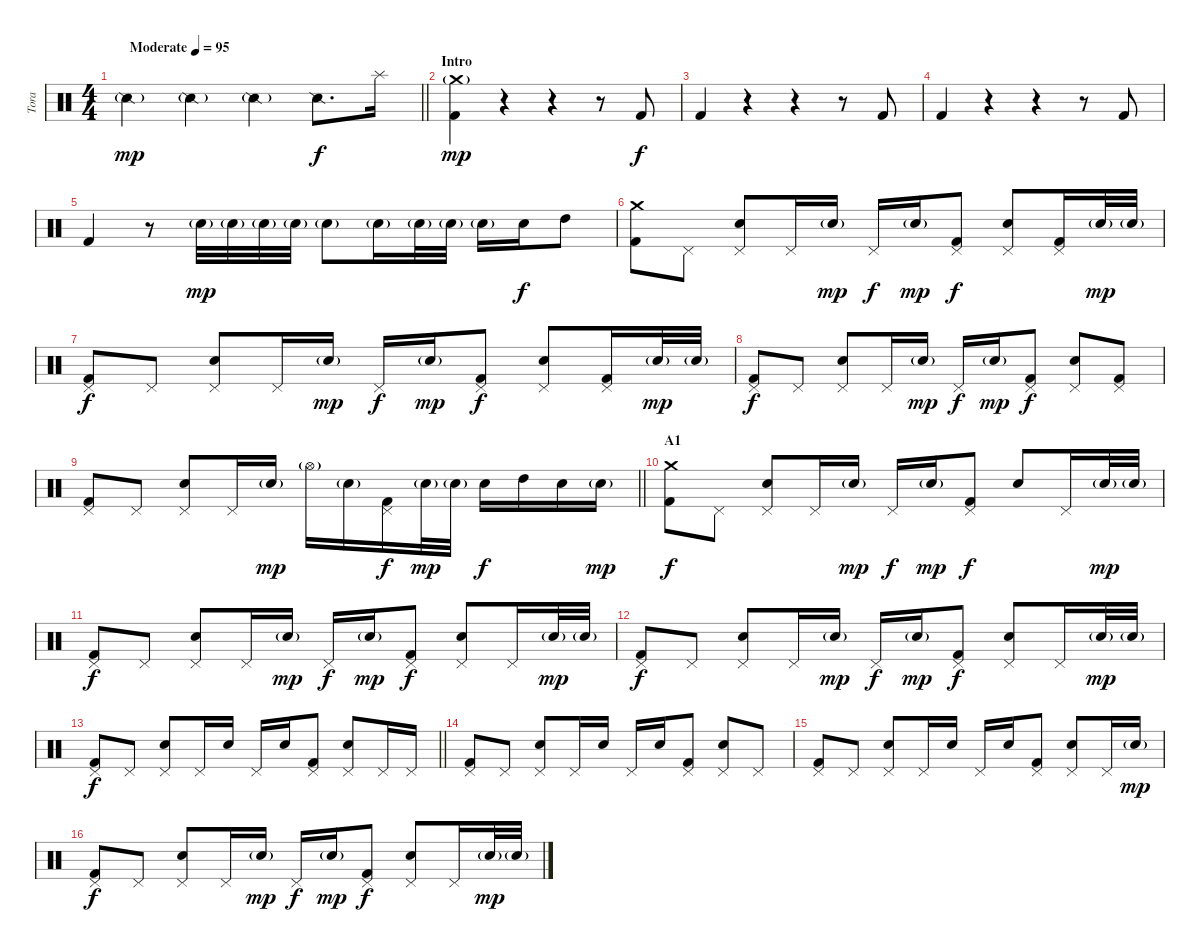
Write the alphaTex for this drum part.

\track ("Tora" "Tora") {instrument percussion}
\staff {score}
\articulation defaults
\ts (4 4)
\tempo (95 "Moderate")
\clef neutral
\barLineRight lightlight
\ks c "Snare (side stick) 2"{g}.4{dy mp} "Snare (side stick) 2"{g}.4 "Snare (side stick) 2"{g}.4 "Snare (side stick) 2".8{d dy f} "Splash (hit)".16
|
\section ("" "Intro")
("Crash medium (hit)"{g} "Kick (hit) 2").4{dy mp} r.4 r.4 r.8 "Kick (hit) 2".8{dy f} |
"Kick (hit) 2".4 r.4 r.4 r.8 "Kick (hit) 2".8 |
"Kick (hit) 2".4 r.4 r.4 r.8 "Kick (hit) 2".8 |
"Kick (hit) 2".4 r.8 "Electric Snare (hit)"{g}.32{dy mp} "Electric Snare (hit)"{g}.32 "Electric Snare (hit)"{g}.32 "Electric Snare (hit)"{g}.32 "Electric Snare (hit)"{g}.8 "Electric Snare (hit)"{g}.16 "Electric Snare (hit)"{g}.32 "Electric Snare (hit)"{g}.32 "Electric Snare (hit)"{g}.16 "Electric Snare (hit)".16{dy f} "High Tom (hit)".8 |
("Crash medium (hit)" "Kick (hit) 2").8 "Pedal Hi-Hat (hit)".8 ("Pedal Hi-Hat (hit)" "Electric Snare (hit)").8 "Pedal Hi-Hat (hit)".16 "Electric Snare (hit)"{g}.16{dy mp} "Pedal Hi-Hat (hit)".16{dy f} "Electric Snare (hit)"{g}.16{dy mp} ("Pedal Hi-Hat (hit)" "Kick (hit) 2").8{dy f} ("Pedal Hi-Hat (hit)" "Electric Snare (hit)").8 ("Pedal Hi-Hat (hit)" "Kick (hit) 2").16 "Electric Snare (hit)"{g}.32{dy mp} "Electric Snare (hit)"{g}.32 |
("Pedal Hi-Hat (hit)" "Kick (hit) 2").8{dy f} "Pedal Hi-Hat (hit)".8 ("Pedal Hi-Hat (hit)" "Electric Snare (hit)").8 "Pedal Hi-Hat (hit)".16 "Electric Snare (hit)"{g}.16{dy mp} "Pedal Hi-Hat (hit)".16{dy f} "Electric Snare (hit)"{g}.16{dy mp} ("Pedal Hi-Hat (hit)" "Kick (hit) 2").8{dy f} ("Pedal Hi-Hat (hit)" "Electric Snare (hit)").8 ("Pedal Hi-Hat (hit)" "Kick (hit) 2").16 "Electric Snare (hit)"{g}.32{dy mp} "Electric Snare (hit)"{g}.32 |
("Pedal Hi-Hat (hit)" "Kick (hit) 2").8{dy f} "Pedal Hi-Hat (hit)".8 ("Pedal Hi-Hat (hit)" "Electric Snare (hit)").8 "Pedal Hi-Hat (hit)".16 "Electric Snare (hit)"{g}.16{dy mp} "Pedal Hi-Hat (hit)".16{dy f} "Electric Snare (hit)"{g}.16{dy mp} ("Pedal Hi-Hat (hit)" "Kick (hit) 2").8{dy f} ("Pedal Hi-Hat (hit)" "Electric Snare (hit)").8 ("Pedal Hi-Hat (hit)" "Kick (hit) 2").8 |
\barLineRight lightlight
("Pedal Hi-Hat (hit)" "Kick (hit) 2").8 "Pedal Hi-Hat (hit)".8 ("Pedal Hi-Hat (hit)" "Electric Snare (hit)").8 "Pedal Hi-Hat (hit)".16 "Electric Snare (hit)"{g}.16{dy mp} "Hi-Hat (open)"{g}.16 "Electric Snare (hit)"{g}.16 ("Pedal Hi-Hat (hit)" "Kick (hit) 2").16{dy f} "Electric Snare (hit)"{g}.32{dy mp} "Electric Snare (hit)"{g}.32 "Electric Snare (hit)".16{dy f} "High Tom (hit)".16 "Electric Snare (hit)".16 "Electric Snare (hit)"{g}.16{dy mp} |
\section ("" "A1")
("Crash medium (hit)" "Kick (hit) 2").8{dy f} "Pedal Hi-Hat (hit)".8 ("Pedal Hi-Hat (hit)" "Electric Snare (hit)").8 "Pedal Hi-Hat (hit)".16 "Electric Snare (hit)"{g}.16{dy mp} "Pedal Hi-Hat (hit)".16{dy f} "Electric Snare (hit)"{g}.16{dy mp} ("Pedal Hi-Hat (hit)" "Kick (hit) 2").8{dy f} "Electric Snare (hit)".8 "Pedal Hi-Hat (hit)".16 "Electric Snare (hit)"{g}.32{dy mp} "Electric Snare (hit)"{g}.32 |
("Pedal Hi-Hat (hit)" "Kick (hit) 2").8{dy f} "Pedal Hi-Hat (hit)".8 ("Pedal Hi-Hat (hit)" "Electric Snare (hit)").8 "Pedal Hi-Hat (hit)".16 "Electric Snare (hit)"{g}.16{dy mp} "Pedal Hi-Hat (hit)".16{dy f} "Electric Snare (hit)"{g}.16{dy mp} ("Pedal Hi-Hat (hit)" "Kick (hit) 2").8{dy f} ("Pedal Hi-Hat (hit)" "Electric Snare (hit)").8 "Pedal Hi-Hat (hit)".16 "Electric Snare (hit)"{g}.32{dy mp} "Electric Snare (hit)"{g}.32 |
("Pedal Hi-Hat (hit)" "Kick (hit) 2").8{dy f} "Pedal Hi-Hat (hit)".8 ("Pedal Hi-Hat (hit)" "Electric Snare (hit)").8 "Pedal Hi-Hat (hit)".16 "Electric Snare (hit)"{g}.16{dy mp} "Pedal Hi-Hat (hit)".16{dy f} "Electric Snare (hit)"{g}.16{dy mp} ("Pedal Hi-Hat (hit)" "Kick (hit) 2").8{dy f} ("Pedal Hi-Hat (hit)" "Electric Snare (hit)").8 "Pedal Hi-Hat (hit)".16 "Electric Snare (hit)"{g}.32{dy mp} "Electric Snare (hit)"{g}.32 |
\barLineRight lightlight
("Pedal Hi-Hat (hit)" "Kick (hit) 2").8{dy f} "Pedal Hi-Hat (hit)".8 ("Pedal Hi-Hat (hit)" "Electric Snare (hit)").8 "Pedal Hi-Hat (hit)".16 "Electric Snare (hit)".16 "Pedal Hi-Hat (hit)".16 "Electric Snare (hit)".16 ("Pedal Hi-Hat (hit)" "Kick (hit) 2").8 ("Pedal Hi-Hat (hit)" "Electric Snare (hit)").8 "Pedal Hi-Hat (hit)".16 "Pedal Hi-Hat (hit)".16 |
("Pedal Hi-Hat (hit)" "Kick (hit) 2").8 "Pedal Hi-Hat (hit)".8 ("Pedal Hi-Hat (hit)" "Electric Snare (hit)").8 "Pedal Hi-Hat (hit)".16 "Electric Snare (hit)".16 "Pedal Hi-Hat (hit)".16 "Electric Snare (hit)".16 ("Pedal Hi-Hat (hit)" "Kick (hit) 2").8 ("Pedal Hi-Hat (hit)" "Electric Snare (hit)").8 "Pedal Hi-Hat (hit)".8 |
("Pedal Hi-Hat (hit)" "Kick (hit) 2").8 "Pedal Hi-Hat (hit)".8 ("Pedal Hi-Hat (hit)" "Electric Snare (hit)").8 "Pedal Hi-Hat (hit)".16 "Electric Snare (hit)".16 "Pedal Hi-Hat (hit)".16 "Electric Snare (hit)".16 ("Pedal Hi-Hat (hit)" "Kick (hit) 2").8 ("Pedal Hi-Hat (hit)" "Electric Snare (hit)").8 "Pedal Hi-Hat (hit)".16 "Electric Snare (hit)"{g}.16{dy mp} |
("Pedal Hi-Hat (hit)" "Kick (hit) 2").8{dy f} "Pedal Hi-Hat (hit)".8 ("Pedal Hi-Hat (hit)" "Electric Snare (hit)").8 "Pedal Hi-Hat (hit)".16 "Electric Snare (hit)"{g}.16{dy mp} "Pedal Hi-Hat (hit)".16{dy f} "Electric Snare (hit)"{g}.16{dy mp} ("Pedal Hi-Hat (hit)" "Kick (hit) 2").8{dy f} ("Pedal Hi-Hat (hit)" "Electric Snare (hit)").8 "Pedal Hi-Hat (hit)".16 "Electric Snare (hit)"{g}.32{dy mp} "Electric Snare (hit)"{g}.32
